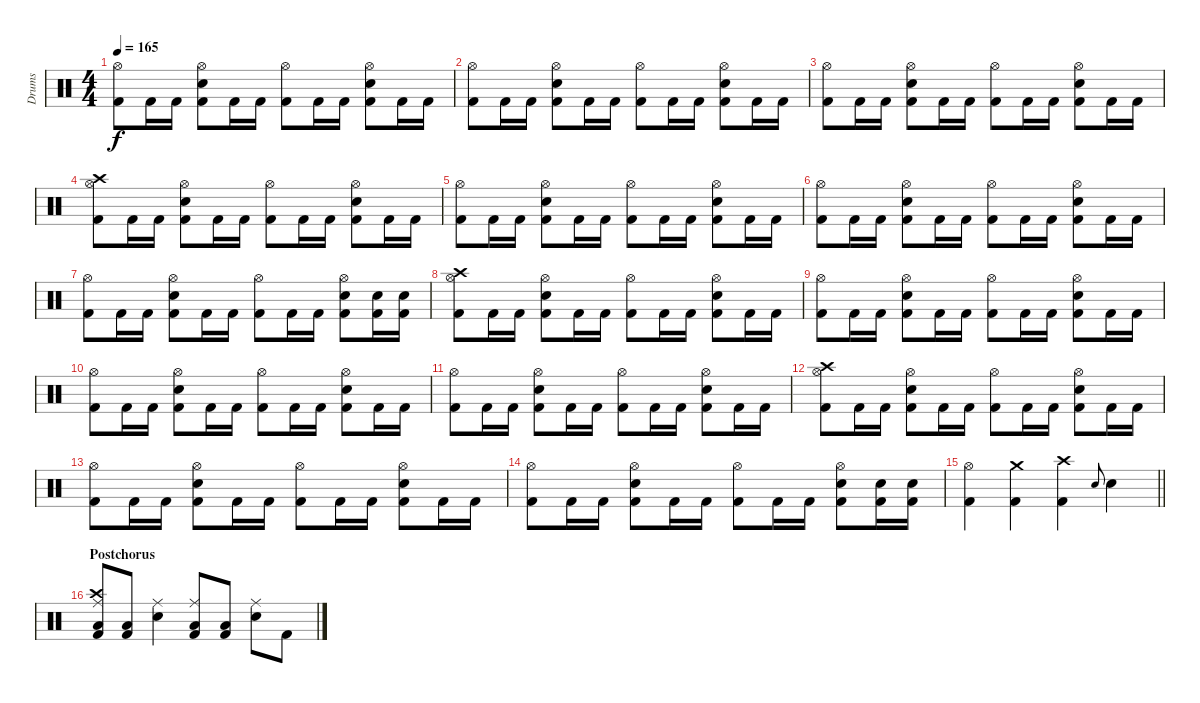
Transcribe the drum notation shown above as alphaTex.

\track ("Drums" "Drums") {instrument percussion}
\staff {score}
\articulation defaults
\ts (4 4)
\tempo 165
\clef neutral
\ks c
("Hi-Hat (open)" "Kick (hit) 2").8{dy f} "Kick (hit) 2".16 "Kick (hit) 2".16 ("Hi-Hat (open)" "Snare (hit) 2" "Kick (hit) 2").8 "Kick (hit) 2".16 "Kick (hit) 2".16 ("Hi-Hat (open)" "Kick (hit) 2").8 "Kick (hit) 2".16 "Kick (hit) 2".16 ("Hi-Hat (open)" "Snare (hit) 2" "Kick (hit) 2").8 "Kick (hit) 2".16 "Kick (hit) 2".16 |
("Hi-Hat (open)" "Kick (hit) 2").8 "Kick (hit) 2".16 "Kick (hit) 2".16 ("Hi-Hat (open)" "Snare (hit) 2" "Kick (hit) 2").8 "Kick (hit) 2".16 "Kick (hit) 2".16 ("Hi-Hat (open)" "Kick (hit) 2").8 "Kick (hit) 2".16 "Kick (hit) 2".16 ("Hi-Hat (open)" "Snare (hit) 2" "Kick (hit) 2").8 "Kick (hit) 2".16 "Kick (hit) 2".16 |
("Hi-Hat (open)" "Kick (hit) 2").8 "Kick (hit) 2".16 "Kick (hit) 2".16 ("Hi-Hat (open)" "Snare (hit) 2" "Kick (hit) 2").8 "Kick (hit) 2".16 "Kick (hit) 2".16 ("Hi-Hat (open)" "Kick (hit) 2").8 "Kick (hit) 2".16 "Kick (hit) 2".16 ("Hi-Hat (open)" "Snare (hit) 2" "Kick (hit) 2").8 "Kick (hit) 2".16 "Kick (hit) 2".16 |
("Crash high (hit)" "Hi-Hat (open)" "Kick (hit) 2").8 "Kick (hit) 2".16 "Kick (hit) 2".16 ("Hi-Hat (open)" "Snare (hit) 2" "Kick (hit) 2").8 "Kick (hit) 2".16 "Kick (hit) 2".16 ("Hi-Hat (open)" "Kick (hit) 2").8 "Kick (hit) 2".16 "Kick (hit) 2".16 ("Hi-Hat (open)" "Snare (hit) 2" "Kick (hit) 2").8 "Kick (hit) 2".16 "Kick (hit) 2".16 |
("Hi-Hat (open)" "Kick (hit) 2").8 "Kick (hit) 2".16 "Kick (hit) 2".16 ("Hi-Hat (open)" "Snare (hit) 2" "Kick (hit) 2").8 "Kick (hit) 2".16 "Kick (hit) 2".16 ("Hi-Hat (open)" "Kick (hit) 2").8 "Kick (hit) 2".16 "Kick (hit) 2".16 ("Hi-Hat (open)" "Snare (hit) 2" "Kick (hit) 2").8 "Kick (hit) 2".16 "Kick (hit) 2".16 |
("Hi-Hat (open)" "Kick (hit) 2").8 "Kick (hit) 2".16 "Kick (hit) 2".16 ("Hi-Hat (open)" "Snare (hit) 2" "Kick (hit) 2").8 "Kick (hit) 2".16 "Kick (hit) 2".16 ("Hi-Hat (open)" "Kick (hit) 2").8 "Kick (hit) 2".16 "Kick (hit) 2".16 ("Hi-Hat (open)" "Snare (hit) 2" "Kick (hit) 2").8 "Kick (hit) 2".16 "Kick (hit) 2".16 |
("Hi-Hat (open)" "Kick (hit) 2").8 "Kick (hit) 2".16 "Kick (hit) 2".16 ("Hi-Hat (open)" "Snare (hit) 2" "Kick (hit) 2").8 "Kick (hit) 2".16 "Kick (hit) 2".16 ("Hi-Hat (open)" "Kick (hit) 2").8 "Kick (hit) 2".16 "Kick (hit) 2".16 ("Hi-Hat (open)" "Snare (hit) 2" "Kick (hit) 2").8 ("Snare (hit) 2" "Kick (hit) 2").16 ("Snare (hit) 2" "Kick (hit) 2").16 |
("Crash high (hit)" "Hi-Hat (open)" "Kick (hit) 2").8 "Kick (hit) 2".16 "Kick (hit) 2".16 ("Hi-Hat (open)" "Snare (hit) 2" "Kick (hit) 2").8 "Kick (hit) 2".16 "Kick (hit) 2".16 ("Hi-Hat (open)" "Kick (hit) 2").8 "Kick (hit) 2".16 "Kick (hit) 2".16 ("Hi-Hat (open)" "Snare (hit) 2" "Kick (hit) 2").8 "Kick (hit) 2".16 "Kick (hit) 2".16 |
("Hi-Hat (open)" "Kick (hit) 2").8 "Kick (hit) 2".16 "Kick (hit) 2".16 ("Hi-Hat (open)" "Snare (hit) 2" "Kick (hit) 2").8 "Kick (hit) 2".16 "Kick (hit) 2".16 ("Hi-Hat (open)" "Kick (hit) 2").8 "Kick (hit) 2".16 "Kick (hit) 2".16 ("Hi-Hat (open)" "Snare (hit) 2" "Kick (hit) 2").8 "Kick (hit) 2".16 "Kick (hit) 2".16 |
("Hi-Hat (open)" "Kick (hit) 2").8 "Kick (hit) 2".16 "Kick (hit) 2".16 ("Hi-Hat (open)" "Snare (hit) 2" "Kick (hit) 2").8 "Kick (hit) 2".16 "Kick (hit) 2".16 ("Hi-Hat (open)" "Kick (hit) 2").8 "Kick (hit) 2".16 "Kick (hit) 2".16 ("Hi-Hat (open)" "Snare (hit) 2" "Kick (hit) 2").8 "Kick (hit) 2".16 "Kick (hit) 2".16 |
("Hi-Hat (open)" "Kick (hit) 2").8 "Kick (hit) 2".16 "Kick (hit) 2".16 ("Hi-Hat (open)" "Snare (hit) 2" "Kick (hit) 2").8 "Kick (hit) 2".16 "Kick (hit) 2".16 ("Hi-Hat (open)" "Kick (hit) 2").8 "Kick (hit) 2".16 "Kick (hit) 2".16 ("Hi-Hat (open)" "Snare (hit) 2" "Kick (hit) 2").8 "Kick (hit) 2".16 "Kick (hit) 2".16 |
("Crash high (hit)" "Hi-Hat (open)" "Kick (hit) 2").8 "Kick (hit) 2".16 "Kick (hit) 2".16 ("Hi-Hat (open)" "Snare (hit) 2" "Kick (hit) 2").8 "Kick (hit) 2".16 "Kick (hit) 2".16 ("Hi-Hat (open)" "Kick (hit) 2").8 "Kick (hit) 2".16 "Kick (hit) 2".16 ("Hi-Hat (open)" "Snare (hit) 2" "Kick (hit) 2").8 "Kick (hit) 2".16 "Kick (hit) 2".16 |
("Hi-Hat (open)" "Kick (hit) 2").8 "Kick (hit) 2".16 "Kick (hit) 2".16 ("Hi-Hat (open)" "Snare (hit) 2" "Kick (hit) 2").8 "Kick (hit) 2".16 "Kick (hit) 2".16 ("Hi-Hat (open)" "Kick (hit) 2").8 "Kick (hit) 2".16 "Kick (hit) 2".16 ("Hi-Hat (open)" "Snare (hit) 2" "Kick (hit) 2").8 "Kick (hit) 2".16 "Kick (hit) 2".16 |
("Hi-Hat (open)" "Kick (hit) 2").8 "Kick (hit) 2".16 "Kick (hit) 2".16 ("Hi-Hat (open)" "Snare (hit) 2" "Kick (hit) 2").8 "Kick (hit) 2".16 "Kick (hit) 2".16 ("Hi-Hat (open)" "Kick (hit) 2").8 "Kick (hit) 2".16 "Kick (hit) 2".16 ("Hi-Hat (open)" "Snare (hit) 2" "Kick (hit) 2").8 ("Snare (hit) 2" "Kick (hit) 2").16 ("Snare (hit) 2" "Kick (hit) 2").16 |
\barLineRight lightlight
("Hi-Hat (open)" "Kick (hit) 2").4 ("Crash medium (hit)" "Kick (hit) 2").4 ("Crash high (hit)" "Kick (hit) 2").4 "Snare (hit) 2".8{gr onbeat} "Snare (hit) 2".4 |
\section ("" "Postchorus")
("Crash high (hit)" "Ride (middle)" "Low Floor Tom (hit)" "Kick (hit) 2").8 ("Low Floor Tom (hit)" "Kick (hit) 2").8 ("Ride (middle)" "Snare (hit) 2").4 ("Ride (middle)" "Low Floor Tom (hit)" "Kick (hit) 2").8 ("Low Floor Tom (hit)" "Kick (hit) 2").8 ("Ride (middle)" "Snare (hit) 2").8 "Kick (hit) 2".8
